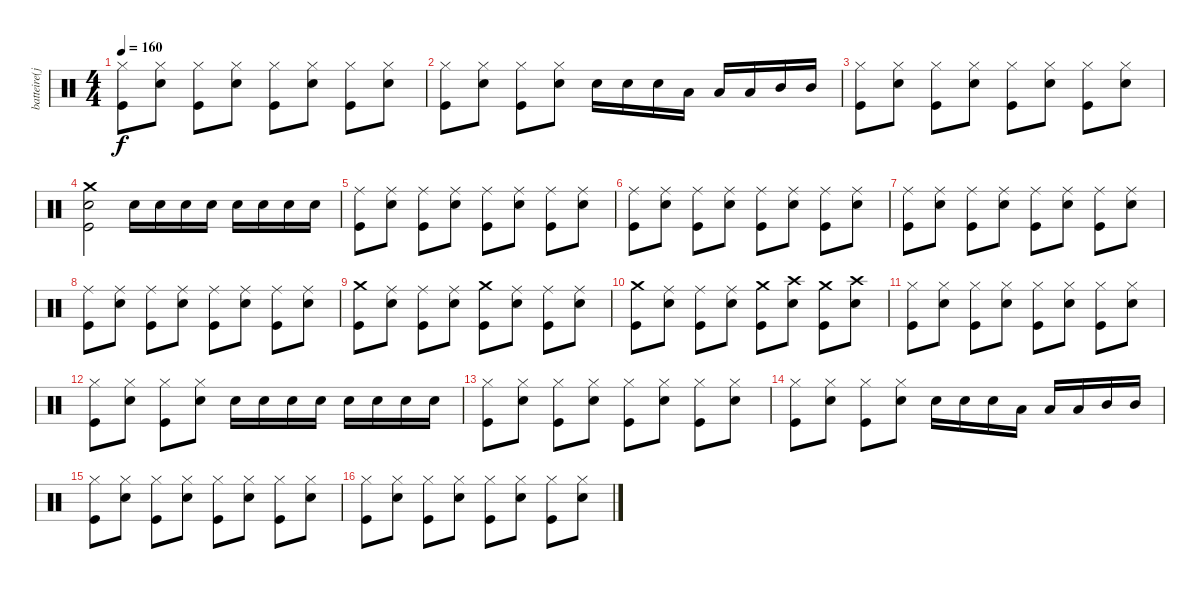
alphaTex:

\track ("batteire(jesus bonehead)" "batteire(j") {instrument percussion}
\staff {score}
\articulation defaults
\ts (4 4)
\tempo 160
\clef neutral
\ks c
("Hi-Hat (closed)" "Kick (hit)").8{dy f} ("Hi-Hat (closed)" "Snare (hit) 2").8 ("Hi-Hat (closed)" "Kick (hit)").8 ("Hi-Hat (closed)" "Snare (hit) 2").8 ("Hi-Hat (closed)" "Kick (hit)").8 ("Hi-Hat (closed)" "Snare (hit) 2").8 ("Hi-Hat (closed)" "Kick (hit)").8 ("Hi-Hat (closed)" "Snare (hit) 2").8 |
("Hi-Hat (closed)" "Kick (hit)").8 ("Hi-Hat (closed)" "Snare (hit) 2").8 ("Hi-Hat (closed)" "Kick (hit)").8 ("Hi-Hat (closed)" "Snare (hit) 2").8 "Snare (hit) 2".16 "Snare (hit) 2".16 "Snare (hit) 2".16 "Low Tom (hit)".16 "Low Tom (hit)".16 "Low Tom (hit)".16 "Mid Tom (hit)".16 "Mid Tom (hit)".16 |
("Hi-Hat (closed)" "Kick (hit)").8 ("Hi-Hat (closed)" "Snare (hit) 2").8 ("Hi-Hat (closed)" "Kick (hit)").8 ("Hi-Hat (closed)" "Snare (hit) 2").8 ("Hi-Hat (closed)" "Kick (hit)").8 ("Hi-Hat (closed)" "Snare (hit) 2").8 ("Hi-Hat (closed)" "Kick (hit)").8 ("Hi-Hat (closed)" "Snare (hit) 2").8 |
("Crash medium (hit)" "Snare (hit) 2" "Kick (hit)").2 "Snare (hit) 2".16 "Snare (hit) 2".16 "Snare (hit) 2".16 "Snare (hit) 2".16 "Snare (hit) 2".16 "Snare (hit) 2".16 "Snare (hit) 2".16 "Snare (hit) 2".16 |
("Ride (middle)" "Kick (hit)").8 ("Ride (middle)" "Snare (hit) 2").8 ("Ride (middle)" "Kick (hit)").8 ("Ride (middle)" "Snare (hit) 2").8 ("Ride (middle)" "Kick (hit)").8 ("Ride (middle)" "Snare (hit) 2").8 ("Ride (middle)" "Kick (hit)").8 ("Ride (middle)" "Snare (hit) 2").8 |
("Ride (middle)" "Kick (hit)").8 ("Ride (middle)" "Snare (hit) 2").8 ("Ride (middle)" "Kick (hit)").8 ("Ride (middle)" "Snare (hit) 2").8 ("Ride (middle)" "Kick (hit)").8 ("Ride (middle)" "Snare (hit) 2").8 ("Ride (middle)" "Kick (hit)").8 ("Ride (middle)" "Snare (hit) 2").8 |
("Ride (middle)" "Kick (hit)").8 ("Ride (middle)" "Snare (hit) 2").8 ("Ride (middle)" "Kick (hit)").8 ("Ride (middle)" "Snare (hit) 2").8 ("Ride (middle)" "Kick (hit)").8 ("Ride (middle)" "Snare (hit) 2").8 ("Ride (middle)" "Kick (hit)").8 ("Ride (middle)" "Snare (hit) 2").8 |
("Ride (middle)" "Kick (hit)").8 ("Ride (middle)" "Snare (hit) 2").8 ("Ride (middle)" "Kick (hit)").8 ("Ride (middle)" "Snare (hit) 2").8 ("Ride (middle)" "Kick (hit)").8 ("Ride (middle)" "Snare (hit) 2").8 ("Ride (middle)" "Kick (hit)").8 ("Ride (middle)" "Snare (hit) 2").8 |
("Crash medium (hit)" "Kick (hit)").8 ("Ride (middle)" "Snare (hit) 2").8 ("Ride (middle)" "Kick (hit)").8 ("Ride (middle)" "Snare (hit) 2").8 ("Crash medium (hit)" "Kick (hit)").8 ("Ride (middle)" "Snare (hit) 2").8 ("Ride (middle)" "Kick (hit)").8 ("Ride (middle)" "Snare (hit) 2").8 |
("Crash medium (hit)" "Kick (hit)").8 ("Ride (middle)" "Snare (hit) 2").8 ("Ride (middle)" "Kick (hit)").8 ("Ride (middle)" "Snare (hit) 2").8 ("Crash medium (hit)" "Kick (hit)").8 ("Crash high (hit)" "Snare (hit) 2").8 ("Crash medium (hit)" "Kick (hit)").8 ("Crash high (hit)" "Snare (hit) 2").8 |
("Hi-Hat (closed)" "Kick (hit)").8 ("Hi-Hat (closed)" "Snare (hit) 2").8 ("Hi-Hat (closed)" "Kick (hit)").8 ("Hi-Hat (closed)" "Snare (hit) 2").8 ("Hi-Hat (closed)" "Kick (hit)").8 ("Hi-Hat (closed)" "Snare (hit) 2").8 ("Hi-Hat (closed)" "Kick (hit)").8 ("Hi-Hat (closed)" "Snare (hit) 2").8 |
("Hi-Hat (closed)" "Kick (hit)").8 ("Hi-Hat (closed)" "Snare (hit) 2").8 ("Hi-Hat (closed)" "Kick (hit)").8 ("Hi-Hat (closed)" "Snare (hit) 2").8 "Snare (hit) 2".16 "Snare (hit) 2".16 "Snare (hit) 2".16 "Snare (hit) 2".16 "Snare (hit) 2".16 "Snare (hit) 2".16 "Snare (hit) 2".16 "Snare (hit) 2".16 |
("Hi-Hat (closed)" "Kick (hit)").8 ("Hi-Hat (closed)" "Snare (hit) 2").8 ("Hi-Hat (closed)" "Kick (hit)").8 ("Hi-Hat (closed)" "Snare (hit) 2").8 ("Hi-Hat (closed)" "Kick (hit)").8 ("Hi-Hat (closed)" "Snare (hit) 2").8 ("Hi-Hat (closed)" "Kick (hit)").8 ("Hi-Hat (closed)" "Snare (hit) 2").8 |
("Hi-Hat (closed)" "Kick (hit)").8 ("Hi-Hat (closed)" "Snare (hit) 2").8 ("Hi-Hat (closed)" "Kick (hit)").8 ("Hi-Hat (closed)" "Snare (hit) 2").8 "Snare (hit) 2".16 "Snare (hit) 2".16 "Snare (hit) 2".16 "Low Tom (hit)".16 "Low Tom (hit)".16 "Low Tom (hit)".16 "Mid Tom (hit)".16 "Mid Tom (hit)".16 |
("Hi-Hat (closed)" "Kick (hit)").8 ("Hi-Hat (closed)" "Snare (hit) 2").8 ("Hi-Hat (closed)" "Kick (hit)").8 ("Hi-Hat (closed)" "Snare (hit) 2").8 ("Hi-Hat (closed)" "Kick (hit)").8 ("Hi-Hat (closed)" "Snare (hit) 2").8 ("Hi-Hat (closed)" "Kick (hit)").8 ("Hi-Hat (closed)" "Snare (hit) 2").8 |
("Hi-Hat (closed)" "Kick (hit)").8 ("Hi-Hat (closed)" "Snare (hit) 2").8 ("Hi-Hat (closed)" "Kick (hit)").8 ("Hi-Hat (closed)" "Snare (hit) 2").8 ("Hi-Hat (closed)" "Kick (hit)").8 ("Hi-Hat (closed)" "Snare (hit) 2").8 ("Hi-Hat (closed)" "Kick (hit)").8 ("Hi-Hat (closed)" "Snare (hit) 2").8
